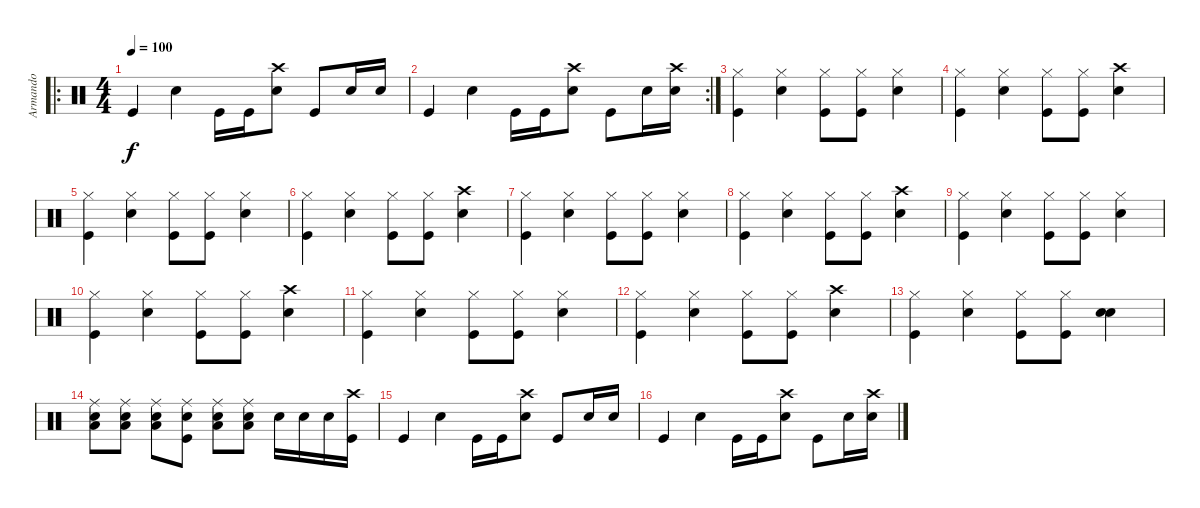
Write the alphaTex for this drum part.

\track ("Armando" "Armando") {instrument percussion}
\staff {score}
\articulation defaults
\ro
\ts (4 4)
\tempo 100
\clef neutral
\ks c "Kick (hit)".4{dy f} "Snare (hit) 2".4 "Kick (hit)".16 "Kick (hit)".16
("Crash high (hit)" "Snare (hit) 2").8 "Kick (hit)".8 "Snare (hit) 2".16 "Snare (hit) 2".16 |
\rc 2 "Kick (hit)".4 "Snare (hit) 2".4 "Kick (hit)".16 "Kick (hit)".16
("Crash high (hit)" "Snare (hit) 2").8 "Kick (hit)".8 "Snare (hit) 2".16 ("Crash high (hit)" "Snare (hit) 2").16 |
("Hi-Hat (closed)" "Kick (hit)").4 ("Hi-Hat (closed)" "Snare (hit) 2").4 ("Hi-Hat (closed)" "Kick (hit)").8 ("Hi-Hat (closed)" "Kick (hit)").8 ("Hi-Hat (closed)" "Snare (hit) 2").4 |
("Hi-Hat (closed)" "Kick (hit)").4 ("Hi-Hat (closed)" "Snare (hit) 2").4 ("Hi-Hat (closed)" "Kick (hit)").8 ("Hi-Hat (closed)" "Kick (hit)").8 ("Crash high (hit)" "Snare (hit) 2").4 |
("Hi-Hat (closed)" "Kick (hit)").4 ("Hi-Hat (closed)" "Snare (hit) 2").4 ("Hi-Hat (closed)" "Kick (hit)").8 ("Hi-Hat (closed)" "Kick (hit)").8 ("Hi-Hat (closed)" "Snare (hit) 2").4 |
("Hi-Hat (closed)" "Kick (hit)").4 ("Hi-Hat (closed)" "Snare (hit) 2").4 ("Hi-Hat (closed)" "Kick (hit)").8 ("Hi-Hat (closed)" "Kick (hit)").8 ("Crash high (hit)" "Snare (hit) 2").4 |
("Hi-Hat (closed)" "Kick (hit)").4 ("Hi-Hat (closed)" "Snare (hit) 2").4 ("Hi-Hat (closed)" "Kick (hit)").8 ("Hi-Hat (closed)" "Kick (hit)").8 ("Hi-Hat (closed)" "Snare (hit) 2").4 |
("Hi-Hat (closed)" "Kick (hit)").4 ("Hi-Hat (closed)" "Snare (hit) 2").4 ("Hi-Hat (closed)" "Kick (hit)").8 ("Hi-Hat (closed)" "Kick (hit)").8 ("Crash high (hit)" "Snare (hit) 2").4 |
("Hi-Hat (closed)" "Kick (hit)").4 ("Hi-Hat (closed)" "Snare (hit) 2").4 ("Hi-Hat (closed)" "Kick (hit)").8 ("Hi-Hat (closed)" "Kick (hit)").8 ("Hi-Hat (closed)" "Snare (hit) 2").4 |
("Hi-Hat (closed)" "Kick (hit)").4 ("Hi-Hat (closed)" "Snare (hit) 2").4 ("Hi-Hat (closed)" "Kick (hit)").8 ("Hi-Hat (closed)" "Kick (hit)").8 ("Crash high (hit)" "Snare (hit) 2").4 |
("Hi-Hat (closed)" "Kick (hit)").4 ("Hi-Hat (closed)" "Snare (hit) 2").4 ("Hi-Hat (closed)" "Kick (hit)").8 ("Hi-Hat (closed)" "Kick (hit)").8 ("Hi-Hat (closed)" "Snare (hit) 2").4 |
("Hi-Hat (closed)" "Kick (hit)").4 ("Hi-Hat (closed)" "Snare (hit) 2").4 ("Hi-Hat (closed)" "Kick (hit)").8 ("Hi-Hat (closed)" "Kick (hit)").8 ("Crash high (hit)" "Snare (hit) 2").4 |
("Hi-Hat (closed)" "Kick (hit)").4 ("Hi-Hat (closed)" "Snare (hit) 2").4 ("Hi-Hat (closed)" "Kick (hit)").8 ("Hi-Hat (closed)" "Kick (hit)").8 ("Snare (hit)" "Snare (hit) 2").4 |
("Ride (middle)" "Snare (hit) 2" "Low Tom (hit)").8 ("Ride (middle)" "Snare (hit) 2" "Low Tom (hit)").8 ("Ride (middle)" "Snare (hit) 2" "Low Tom (hit)").8 ("Ride (middle)" "Snare (hit) 2" "Kick (hit)").8 ("Ride (middle)" "Snare (hit) 2" "Low Tom (hit)").8 ("Ride (middle)" "Snare (hit) 2" "Low Tom (hit)").8 "Snare (hit) 2".16 "Snare (hit) 2".16 "Snare (hit) 2".16 ("Crash high (hit)" "Kick (hit)").16 |
"Kick (hit)".4 "Snare (hit) 2".4 "Kick (hit)".16 "Kick (hit)".16 ("Crash high (hit)" "Snare (hit) 2").8 "Kick (hit)".8 "Snare (hit) 2".16 "Snare (hit) 2".16 |
"Kick (hit)".4 "Snare (hit) 2".4 "Kick (hit)".16 "Kick (hit)".16 ("Crash high (hit)" "Snare (hit) 2").8 "Kick (hit)".8 "Snare (hit) 2".16 ("Crash high (hit)" "Snare (hit) 2").16
